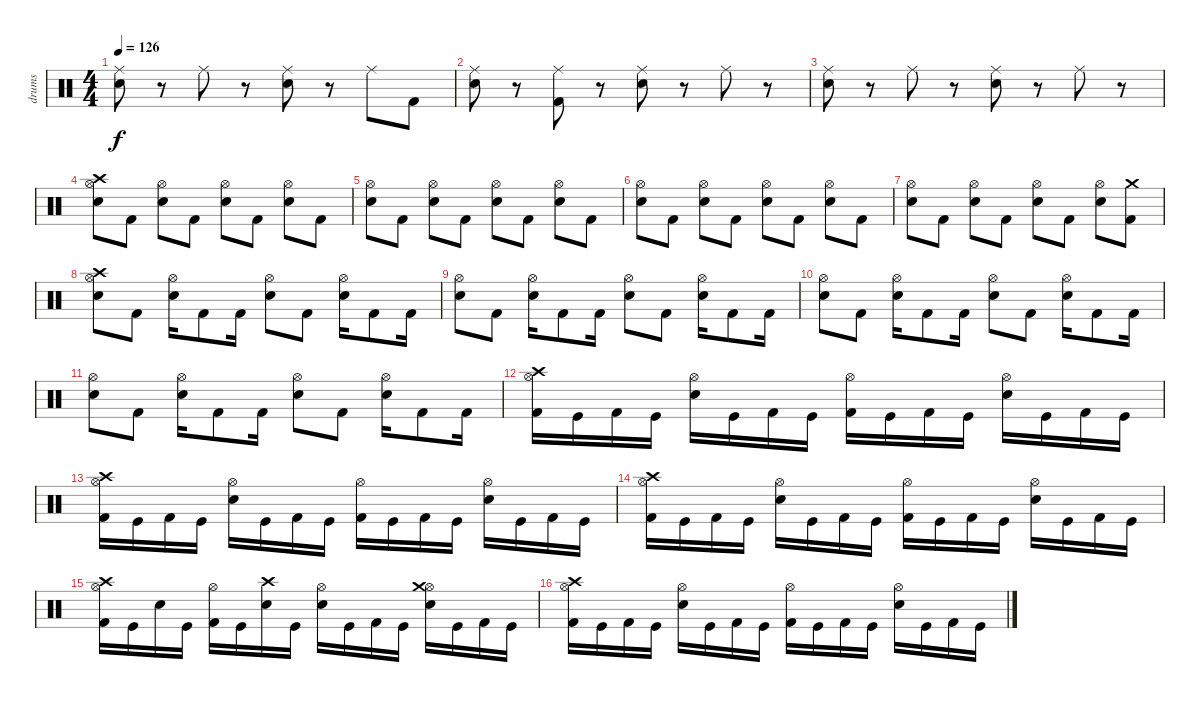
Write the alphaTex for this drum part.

\track ("drums" "drums") {instrument percussion}
\staff {score}
\articulation defaults
\ts (4 4)
\tempo 126
\clef neutral
\ks c
("Electric Snare (hit)" "Ride (middle)").8{dy f} r.8 "Ride (middle)".8 r.8 ("Electric Snare (hit)" "Ride (middle)").8 r.8 "Ride (middle)".8 "Kick (hit) 2".8 |
("Electric Snare (hit)" "Ride (middle)").8 r.8 ("Kick (hit) 2" "Ride (middle)").8 r.8 ("Electric Snare (hit)" "Ride (middle)").8 r.8 "Ride (middle)".8 r.8 |
("Electric Snare (hit)" "Ride (middle)").8 r.8 "Ride (middle)".8 r.8 ("Electric Snare (hit)" "Ride (middle)").8 r.8 "Ride (middle)".8 r.8 |
("Electric Snare (hit)" "Hi-Hat (open)" "Crash high (hit)").8 "Kick (hit) 2".8 ("Electric Snare (hit)" "Hi-Hat (open)").8 "Kick (hit) 2".8 ("Electric Snare (hit)" "Hi-Hat (open)").8 "Kick (hit) 2".8 ("Electric Snare (hit)" "Hi-Hat (open)").8 "Kick (hit) 2".8 |
("Electric Snare (hit)" "Hi-Hat (open)").8 "Kick (hit) 2".8 ("Electric Snare (hit)" "Hi-Hat (open)").8 "Kick (hit) 2".8 ("Electric Snare (hit)" "Hi-Hat (open)").8 "Kick (hit) 2".8 ("Electric Snare (hit)" "Hi-Hat (open)").8 "Kick (hit) 2".8 |
("Electric Snare (hit)" "Hi-Hat (open)").8 "Kick (hit) 2".8 ("Electric Snare (hit)" "Hi-Hat (open)").8 "Kick (hit) 2".8 ("Electric Snare (hit)" "Hi-Hat (open)").8 "Kick (hit) 2".8 ("Electric Snare (hit)" "Hi-Hat (open)").8 "Kick (hit) 2".8 |
("Electric Snare (hit)" "Hi-Hat (open)").8 "Kick (hit) 2".8 ("Electric Snare (hit)" "Hi-Hat (open)").8 "Kick (hit) 2".8 ("Electric Snare (hit)" "Hi-Hat (open)").8 "Kick (hit) 2".8 ("Electric Snare (hit)" "Hi-Hat (open)").8 ("Kick (hit) 2" "Crash medium (hit)").8 |
("Electric Snare (hit)" "Hi-Hat (open)" "Crash high (hit)").8 "Kick (hit) 2".8 ("Electric Snare (hit)" "Hi-Hat (open)").16 "Kick (hit) 2".8 "Kick (hit) 2".16 ("Electric Snare (hit)" "Hi-Hat (open)").8 "Kick (hit) 2".8 ("Electric Snare (hit)" "Hi-Hat (open)").16 "Kick (hit) 2".8 "Kick (hit) 2".16 |
("Electric Snare (hit)" "Hi-Hat (open)").8 "Kick (hit) 2".8 ("Electric Snare (hit)" "Hi-Hat (open)").16 "Kick (hit) 2".8 "Kick (hit) 2".16 ("Electric Snare (hit)" "Hi-Hat (open)").8 "Kick (hit) 2".8 ("Electric Snare (hit)" "Hi-Hat (open)").16 "Kick (hit) 2".8 "Kick (hit) 2".16 |
("Electric Snare (hit)" "Hi-Hat (open)").8 "Kick (hit) 2".8 ("Electric Snare (hit)" "Hi-Hat (open)").16 "Kick (hit) 2".8 "Kick (hit) 2".16 ("Electric Snare (hit)" "Hi-Hat (open)").8 "Kick (hit) 2".8 ("Electric Snare (hit)" "Hi-Hat (open)").16 "Kick (hit) 2".8 "Kick (hit) 2".16 |
("Electric Snare (hit)" "Hi-Hat (open)").8 "Kick (hit) 2".8 ("Electric Snare (hit)" "Hi-Hat (open)").16 "Kick (hit) 2".8 "Kick (hit) 2".16 ("Electric Snare (hit)" "Hi-Hat (open)").8 "Kick (hit) 2".8 ("Electric Snare (hit)" "Hi-Hat (open)").16 "Kick (hit) 2".8 "Kick (hit) 2".16 |
("Kick (hit) 2" "Hi-Hat (open)" "Crash high (hit)").16 "Kick (hit)".16 "Kick (hit) 2".16 "Kick (hit)".16 ("Electric Snare (hit)" "Hi-Hat (open)").16 "Kick (hit)".16 "Kick (hit) 2".16 "Kick (hit)".16 ("Kick (hit) 2" "Hi-Hat (open)").16 "Kick (hit)".16 "Kick (hit) 2".16 "Kick (hit)".16 ("Electric Snare (hit)" "Hi-Hat (open)").16 "Kick (hit)".16 "Kick (hit) 2".16 "Kick (hit)".16 |
("Kick (hit) 2" "Hi-Hat (open)" "Crash high (hit)").16 "Kick (hit)".16 "Kick (hit) 2".16 "Kick (hit)".16 ("Electric Snare (hit)" "Hi-Hat (open)").16 "Kick (hit)".16 "Kick (hit) 2".16 "Kick (hit)".16 ("Kick (hit) 2" "Hi-Hat (open)").16 "Kick (hit)".16 "Kick (hit) 2".16 "Kick (hit)".16 ("Electric Snare (hit)" "Hi-Hat (open)").16 "Kick (hit)".16 "Kick (hit) 2".16 "Kick (hit)".16 |
("Kick (hit) 2" "Hi-Hat (open)" "Crash high (hit)").16 "Kick (hit)".16 "Kick (hit) 2".16 "Kick (hit)".16 ("Electric Snare (hit)" "Hi-Hat (open)").16 "Kick (hit)".16 "Kick (hit) 2".16 "Kick (hit)".16 ("Kick (hit) 2" "Hi-Hat (open)").16 "Kick (hit)".16 "Kick (hit) 2".16 "Kick (hit)".16 ("Electric Snare (hit)" "Hi-Hat (open)").16 "Kick (hit)".16 "Kick (hit) 2".16 "Kick (hit)".16 |
("Kick (hit) 2" "Hi-Hat (open)" "Crash high (hit)").16 "Kick (hit)".16 "Electric Snare (hit)".16 "Kick (hit)".16 ("Kick (hit) 2" "Hi-Hat (open)").16 "Kick (hit)".16 ("Electric Snare (hit)" "Crash high (hit)").16 "Kick (hit)".16 ("Electric Snare (hit)" "Hi-Hat (open)").16 "Kick (hit)".16 "Kick (hit) 2".16 "Kick (hit)".16 ("Electric Snare (hit)" "Hi-Hat (open)" "Crash medium (hit)").16 "Kick (hit)".16 "Kick (hit) 2".16 "Kick (hit)".16 |
("Kick (hit) 2" "Hi-Hat (open)" "Crash high (hit)").16 "Kick (hit)".16 "Kick (hit) 2".16 "Kick (hit)".16 ("Electric Snare (hit)" "Hi-Hat (open)").16 "Kick (hit)".16 "Kick (hit) 2".16 "Kick (hit)".16 ("Kick (hit) 2" "Hi-Hat (open)").16 "Kick (hit)".16 "Kick (hit) 2".16 "Kick (hit)".16 ("Electric Snare (hit)" "Hi-Hat (open)").16 "Kick (hit)".16 "Kick (hit) 2".16 "Kick (hit)".16
